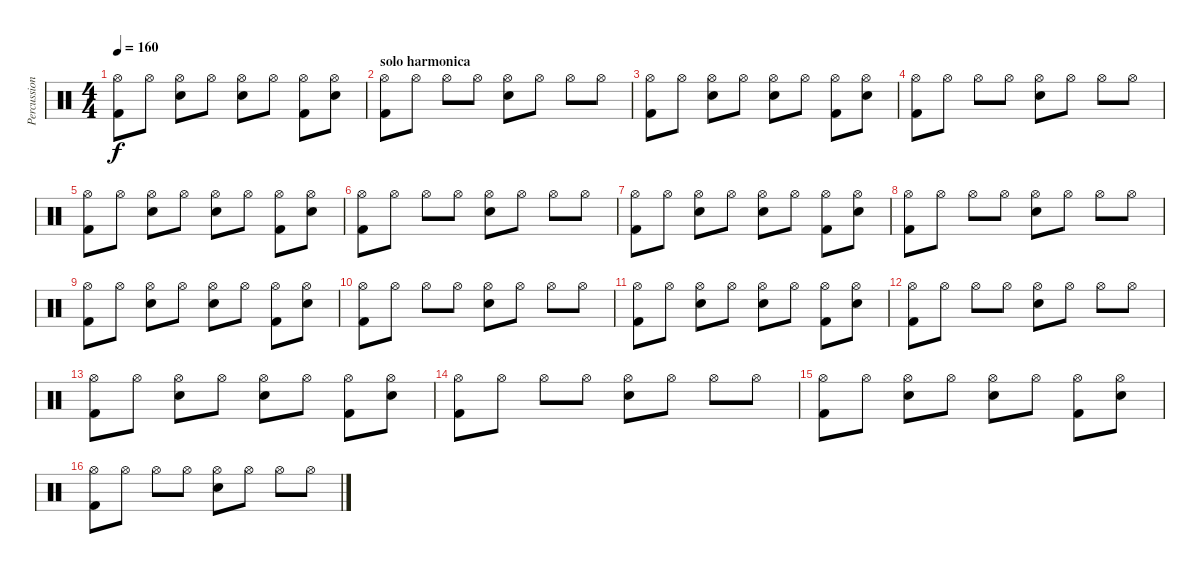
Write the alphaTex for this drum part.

\track ("Percussions" "Percussion") {instrument percussion}
\staff {score}
\articulation defaults
\ts (4 4)
\tempo 160
\clef neutral
\ks c
("Hi-Hat (open)" "Kick (hit) 2").8{dy f} "Hi-Hat (open)".8 ("Hi-Hat (open)" "Electric Snare (hit)").8 "Hi-Hat (open)".8 ("Hi-Hat (open)" "Electric Snare (hit)").8 "Hi-Hat (open)".8 ("Hi-Hat (open)" "Kick (hit) 2").8 ("Hi-Hat (open)" "Electric Snare (hit)").8 |
\section ("" "solo harmonica")
("Hi-Hat (open)" "Kick (hit) 2").8 "Hi-Hat (open)".8 "Hi-Hat (open)".8 "Hi-Hat (open)".8 ("Hi-Hat (open)" "Electric Snare (hit)").8 "Hi-Hat (open)".8 "Hi-Hat (open)".8 "Hi-Hat (open)".8 |
("Hi-Hat (open)" "Kick (hit) 2").8 "Hi-Hat (open)".8 ("Hi-Hat (open)" "Electric Snare (hit)").8 "Hi-Hat (open)".8 ("Hi-Hat (open)" "Electric Snare (hit)").8 "Hi-Hat (open)".8 ("Hi-Hat (open)" "Kick (hit) 2").8 ("Hi-Hat (open)" "Electric Snare (hit)").8 |
("Hi-Hat (open)" "Kick (hit) 2").8 "Hi-Hat (open)".8 "Hi-Hat (open)".8 "Hi-Hat (open)".8 ("Hi-Hat (open)" "Electric Snare (hit)").8 "Hi-Hat (open)".8 "Hi-Hat (open)".8 "Hi-Hat (open)".8 |
("Hi-Hat (open)" "Kick (hit) 2").8 "Hi-Hat (open)".8 ("Hi-Hat (open)" "Electric Snare (hit)").8 "Hi-Hat (open)".8 ("Hi-Hat (open)" "Electric Snare (hit)").8 "Hi-Hat (open)".8 ("Hi-Hat (open)" "Kick (hit) 2").8 ("Hi-Hat (open)" "Electric Snare (hit)").8 |
("Hi-Hat (open)" "Kick (hit) 2").8 "Hi-Hat (open)".8 "Hi-Hat (open)".8 "Hi-Hat (open)".8 ("Hi-Hat (open)" "Electric Snare (hit)").8 "Hi-Hat (open)".8 "Hi-Hat (open)".8 "Hi-Hat (open)".8 |
("Hi-Hat (open)" "Kick (hit) 2").8 "Hi-Hat (open)".8 ("Hi-Hat (open)" "Electric Snare (hit)").8 "Hi-Hat (open)".8 ("Hi-Hat (open)" "Electric Snare (hit)").8 "Hi-Hat (open)".8 ("Hi-Hat (open)" "Kick (hit) 2").8 ("Hi-Hat (open)" "Electric Snare (hit)").8 |
("Hi-Hat (open)" "Kick (hit) 2").8 "Hi-Hat (open)".8 "Hi-Hat (open)".8 "Hi-Hat (open)".8 ("Hi-Hat (open)" "Electric Snare (hit)").8 "Hi-Hat (open)".8 "Hi-Hat (open)".8 "Hi-Hat (open)".8 |
("Hi-Hat (open)" "Kick (hit) 2").8 "Hi-Hat (open)".8 ("Hi-Hat (open)" "Electric Snare (hit)").8 "Hi-Hat (open)".8 ("Hi-Hat (open)" "Electric Snare (hit)").8 "Hi-Hat (open)".8 ("Hi-Hat (open)" "Kick (hit) 2").8 ("Hi-Hat (open)" "Electric Snare (hit)").8 |
("Hi-Hat (open)" "Kick (hit) 2").8 "Hi-Hat (open)".8 "Hi-Hat (open)".8 "Hi-Hat (open)".8 ("Hi-Hat (open)" "Electric Snare (hit)").8 "Hi-Hat (open)".8 "Hi-Hat (open)".8 "Hi-Hat (open)".8 |
("Hi-Hat (open)" "Kick (hit) 2").8 "Hi-Hat (open)".8 ("Hi-Hat (open)" "Electric Snare (hit)").8 "Hi-Hat (open)".8 ("Hi-Hat (open)" "Electric Snare (hit)").8 "Hi-Hat (open)".8 ("Hi-Hat (open)" "Kick (hit) 2").8 ("Hi-Hat (open)" "Electric Snare (hit)").8 |
("Hi-Hat (open)" "Kick (hit) 2").8 "Hi-Hat (open)".8 "Hi-Hat (open)".8 "Hi-Hat (open)".8 ("Hi-Hat (open)" "Electric Snare (hit)").8 "Hi-Hat (open)".8 "Hi-Hat (open)".8 "Hi-Hat (open)".8 |
("Hi-Hat (open)" "Kick (hit) 2").8 "Hi-Hat (open)".8 ("Hi-Hat (open)" "Electric Snare (hit)").8 "Hi-Hat (open)".8 ("Hi-Hat (open)" "Electric Snare (hit)").8 "Hi-Hat (open)".8 ("Hi-Hat (open)" "Kick (hit) 2").8 ("Hi-Hat (open)" "Electric Snare (hit)").8 |
("Hi-Hat (open)" "Kick (hit) 2").8 "Hi-Hat (open)".8 "Hi-Hat (open)".8 "Hi-Hat (open)".8 ("Hi-Hat (open)" "Electric Snare (hit)").8 "Hi-Hat (open)".8 "Hi-Hat (open)".8 "Hi-Hat (open)".8 |
("Hi-Hat (open)" "Kick (hit) 2").8 "Hi-Hat (open)".8 ("Hi-Hat (open)" "Electric Snare (hit)").8 "Hi-Hat (open)".8 ("Hi-Hat (open)" "Electric Snare (hit)").8 "Hi-Hat (open)".8 ("Hi-Hat (open)" "Kick (hit) 2").8 ("Hi-Hat (open)" "Electric Snare (hit)").8 |
("Hi-Hat (open)" "Kick (hit) 2").8 "Hi-Hat (open)".8 "Hi-Hat (open)".8 "Hi-Hat (open)".8 ("Hi-Hat (open)" "Electric Snare (hit)").8 "Hi-Hat (open)".8 "Hi-Hat (open)".8 "Hi-Hat (open)".8
